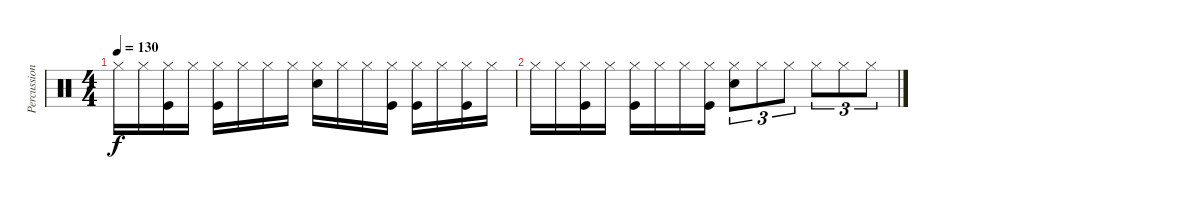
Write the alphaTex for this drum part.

\track ("Percussion" "Percussion") {instrument percussion}
\staff {score}
\articulation defaults
\ts (4 4)
\tempo 130
\clef neutral
\ks c "Hi-Hat (closed)".16{dy f} "Hi-Hat (closed)".16
("Hi-Hat (closed)" "Kick (hit)").16 "Hi-Hat (closed)".16 ("Hi-Hat (closed)" "Kick (hit)").16 "Hi-Hat (closed)".16 "Hi-Hat (closed)".16 "Hi-Hat (closed)".16 ("Hi-Hat (closed)" "Hand Clap (hit)").16 "Hi-Hat (closed)".16 "Hi-Hat (closed)".16 ("Hi-Hat (closed)" "Kick (hit)").16 ("Hi-Hat (closed)" "Kick (hit)").16 "Hi-Hat (closed)".16 ("Hi-Hat (closed)" "Kick (hit)").16 "Hi-Hat (closed)".16 |
"Hi-Hat (closed)".16 "Hi-Hat (closed)".16 ("Hi-Hat (closed)" "Kick (hit)").16 "Hi-Hat (closed)".16 ("Hi-Hat (closed)" "Kick (hit)").16 "Hi-Hat (closed)".16 "Hi-Hat (closed)".16 ("Hi-Hat (closed)" "Kick (hit)").16 ("Hi-Hat (closed)" "Hand Clap (hit)").8{tu (3 2)} "Hi-Hat (closed)".8{tu (3 2)} "Hi-Hat (closed)".8{tu (3 2)} "Hi-Hat (closed)".8{tu (3 2)} "Hi-Hat (closed)".8{tu (3 2)} "Hi-Hat (closed)".8{tu (3 2)}
